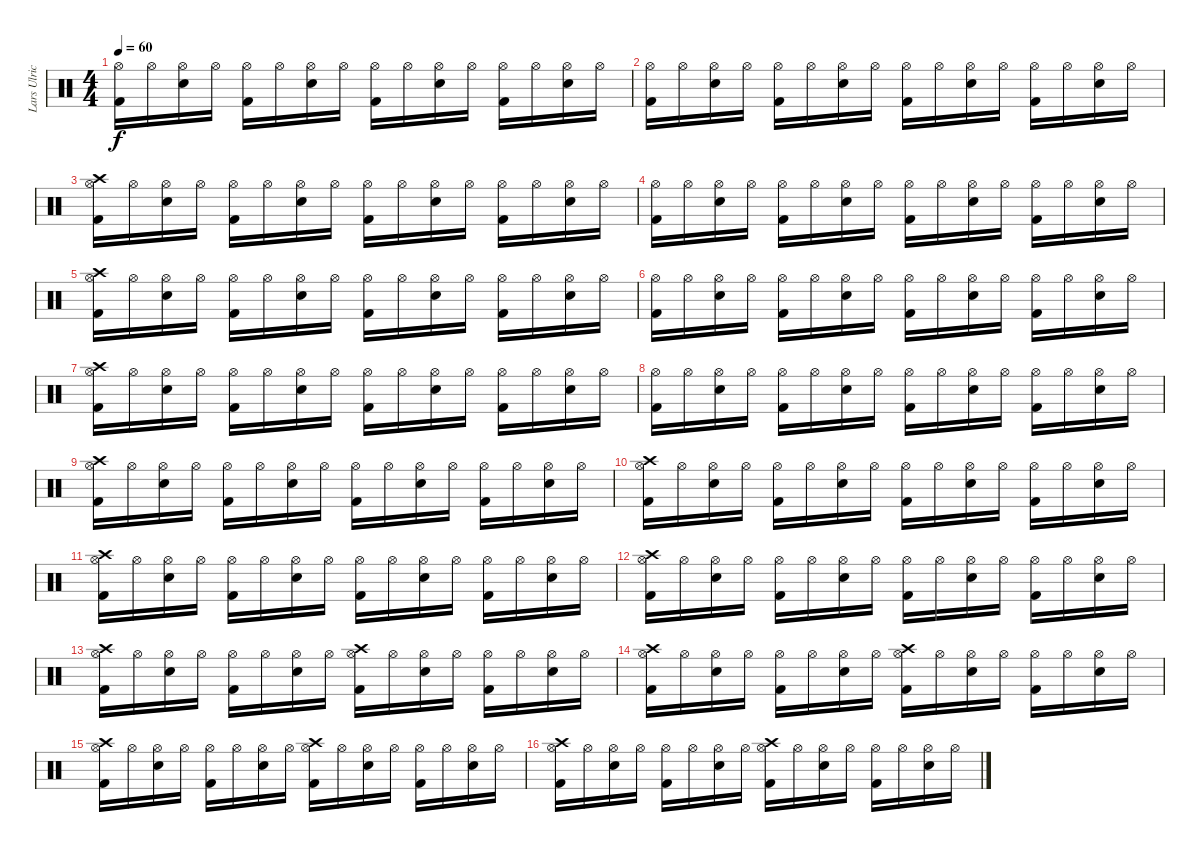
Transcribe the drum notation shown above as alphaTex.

\track ("Lars Ulrich" "Lars Ulric") {instrument percussion}
\staff {score}
\articulation defaults
\ts (4 4)
\tempo 60
\clef neutral
\ks c
("Kick (hit) 2" "Hi-Hat (open)").16{dy f} "Hi-Hat (open)".16 ("Snare (hit) 2" "Hi-Hat (open)").16 "Hi-Hat (open)".16 ("Kick (hit) 2" "Hi-Hat (open)").16 "Hi-Hat (open)".16 ("Snare (hit) 2" "Hi-Hat (open)").16 "Hi-Hat (open)".16 ("Kick (hit) 2" "Hi-Hat (open)").16 "Hi-Hat (open)".16 ("Snare (hit) 2" "Hi-Hat (open)").16 "Hi-Hat (open)".16 ("Kick (hit) 2" "Hi-Hat (open)").16 "Hi-Hat (open)".16 ("Snare (hit) 2" "Hi-Hat (open)").16 "Hi-Hat (open)".16 |
("Kick (hit) 2" "Hi-Hat (open)").16 "Hi-Hat (open)".16 ("Snare (hit) 2" "Hi-Hat (open)").16 "Hi-Hat (open)".16 ("Kick (hit) 2" "Hi-Hat (open)").16 "Hi-Hat (open)".16 ("Snare (hit) 2" "Hi-Hat (open)").16 "Hi-Hat (open)".16 ("Kick (hit) 2" "Hi-Hat (open)").16 "Hi-Hat (open)".16 ("Snare (hit) 2" "Hi-Hat (open)").16 "Hi-Hat (open)".16 ("Kick (hit) 2" "Hi-Hat (open)").16 "Hi-Hat (open)".16 ("Snare (hit) 2" "Hi-Hat (open)").16 "Hi-Hat (open)".16 |
("Kick (hit) 2" "Hi-Hat (open)" "Crash high (hit)").16 "Hi-Hat (open)".16 ("Snare (hit) 2" "Hi-Hat (open)").16 "Hi-Hat (open)".16 ("Kick (hit) 2" "Hi-Hat (open)").16 "Hi-Hat (open)".16 ("Snare (hit) 2" "Hi-Hat (open)").16 "Hi-Hat (open)".16 ("Kick (hit) 2" "Hi-Hat (open)").16 "Hi-Hat (open)".16 ("Snare (hit) 2" "Hi-Hat (open)").16 "Hi-Hat (open)".16 ("Kick (hit) 2" "Hi-Hat (open)").16 "Hi-Hat (open)".16 ("Snare (hit) 2" "Hi-Hat (open)").16 "Hi-Hat (open)".16 |
("Kick (hit) 2" "Hi-Hat (open)").16 "Hi-Hat (open)".16 ("Snare (hit) 2" "Hi-Hat (open)").16 "Hi-Hat (open)".16 ("Kick (hit) 2" "Hi-Hat (open)").16 "Hi-Hat (open)".16 ("Snare (hit) 2" "Hi-Hat (open)").16 "Hi-Hat (open)".16 ("Kick (hit) 2" "Hi-Hat (open)").16 "Hi-Hat (open)".16 ("Snare (hit) 2" "Hi-Hat (open)").16 "Hi-Hat (open)".16 ("Kick (hit) 2" "Hi-Hat (open)").16 "Hi-Hat (open)".16 ("Snare (hit) 2" "Hi-Hat (open)").16 "Hi-Hat (open)".16 |
("Kick (hit) 2" "Hi-Hat (open)" "Crash high (hit)").16 "Hi-Hat (open)".16 ("Snare (hit) 2" "Hi-Hat (open)").16 "Hi-Hat (open)".16 ("Kick (hit) 2" "Hi-Hat (open)").16 "Hi-Hat (open)".16 ("Snare (hit) 2" "Hi-Hat (open)").16 "Hi-Hat (open)".16 ("Kick (hit) 2" "Hi-Hat (open)").16 "Hi-Hat (open)".16 ("Snare (hit) 2" "Hi-Hat (open)").16 "Hi-Hat (open)".16 ("Kick (hit) 2" "Hi-Hat (open)").16 "Hi-Hat (open)".16 ("Snare (hit) 2" "Hi-Hat (open)").16 "Hi-Hat (open)".16 |
("Kick (hit) 2" "Hi-Hat (open)").16 "Hi-Hat (open)".16 ("Snare (hit) 2" "Hi-Hat (open)").16 "Hi-Hat (open)".16 ("Kick (hit) 2" "Hi-Hat (open)").16 "Hi-Hat (open)".16 ("Snare (hit) 2" "Hi-Hat (open)").16 "Hi-Hat (open)".16 ("Kick (hit) 2" "Hi-Hat (open)").16 "Hi-Hat (open)".16 ("Snare (hit) 2" "Hi-Hat (open)").16 "Hi-Hat (open)".16 ("Kick (hit) 2" "Hi-Hat (open)").16 "Hi-Hat (open)".16 ("Snare (hit) 2" "Hi-Hat (open)").16 "Hi-Hat (open)".16 |
("Kick (hit) 2" "Hi-Hat (open)" "Crash high (hit)").16 "Hi-Hat (open)".16 ("Snare (hit) 2" "Hi-Hat (open)").16 "Hi-Hat (open)".16 ("Kick (hit) 2" "Hi-Hat (open)").16 "Hi-Hat (open)".16 ("Snare (hit) 2" "Hi-Hat (open)").16 "Hi-Hat (open)".16 ("Kick (hit) 2" "Hi-Hat (open)").16 "Hi-Hat (open)".16 ("Snare (hit) 2" "Hi-Hat (open)").16 "Hi-Hat (open)".16 ("Kick (hit) 2" "Hi-Hat (open)").16 "Hi-Hat (open)".16 ("Snare (hit) 2" "Hi-Hat (open)").16 "Hi-Hat (open)".16 |
("Kick (hit) 2" "Hi-Hat (open)").16 "Hi-Hat (open)".16 ("Snare (hit) 2" "Hi-Hat (open)").16 "Hi-Hat (open)".16 ("Kick (hit) 2" "Hi-Hat (open)").16 "Hi-Hat (open)".16 ("Snare (hit) 2" "Hi-Hat (open)").16 "Hi-Hat (open)".16 ("Kick (hit) 2" "Hi-Hat (open)").16 "Hi-Hat (open)".16 ("Snare (hit) 2" "Hi-Hat (open)").16 "Hi-Hat (open)".16 ("Kick (hit) 2" "Hi-Hat (open)").16 "Hi-Hat (open)".16 ("Snare (hit) 2" "Hi-Hat (open)").16 "Hi-Hat (open)".16 |
("Kick (hit) 2" "Hi-Hat (open)" "Crash high (hit)").16 "Hi-Hat (open)".16 ("Snare (hit) 2" "Hi-Hat (open)").16 "Hi-Hat (open)".16 ("Kick (hit) 2" "Hi-Hat (open)").16 "Hi-Hat (open)".16 ("Snare (hit) 2" "Hi-Hat (open)").16 "Hi-Hat (open)".16 ("Kick (hit) 2" "Hi-Hat (open)").16 "Hi-Hat (open)".16 ("Snare (hit) 2" "Hi-Hat (open)").16 "Hi-Hat (open)".16 ("Kick (hit) 2" "Hi-Hat (open)").16 "Hi-Hat (open)".16 ("Snare (hit) 2" "Hi-Hat (open)").16 "Hi-Hat (open)".16 |
("Kick (hit) 2" "Hi-Hat (open)" "Crash high (hit)").16 "Hi-Hat (open)".16 ("Snare (hit) 2" "Hi-Hat (open)").16 "Hi-Hat (open)".16 ("Kick (hit) 2" "Hi-Hat (open)").16 "Hi-Hat (open)".16 ("Snare (hit) 2" "Hi-Hat (open)").16 "Hi-Hat (open)".16 ("Kick (hit) 2" "Hi-Hat (open)").16 "Hi-Hat (open)".16 ("Snare (hit) 2" "Hi-Hat (open)").16 "Hi-Hat (open)".16 ("Kick (hit) 2" "Hi-Hat (open)").16 "Hi-Hat (open)".16 ("Snare (hit) 2" "Hi-Hat (open)").16 "Hi-Hat (open)".16 |
("Kick (hit) 2" "Hi-Hat (open)" "Crash high (hit)").16 "Hi-Hat (open)".16 ("Snare (hit) 2" "Hi-Hat (open)").16 "Hi-Hat (open)".16 ("Kick (hit) 2" "Hi-Hat (open)").16 "Hi-Hat (open)".16 ("Snare (hit) 2" "Hi-Hat (open)").16 "Hi-Hat (open)".16 ("Kick (hit) 2" "Hi-Hat (open)").16 "Hi-Hat (open)".16 ("Snare (hit) 2" "Hi-Hat (open)").16 "Hi-Hat (open)".16 ("Kick (hit) 2" "Hi-Hat (open)").16 "Hi-Hat (open)".16 ("Snare (hit) 2" "Hi-Hat (open)").16 "Hi-Hat (open)".16 |
("Kick (hit) 2" "Hi-Hat (open)" "Crash high (hit)").16 "Hi-Hat (open)".16 ("Snare (hit) 2" "Hi-Hat (open)").16 "Hi-Hat (open)".16 ("Kick (hit) 2" "Hi-Hat (open)").16 "Hi-Hat (open)".16 ("Snare (hit) 2" "Hi-Hat (open)").16 "Hi-Hat (open)".16 ("Kick (hit) 2" "Hi-Hat (open)").16 "Hi-Hat (open)".16 ("Snare (hit) 2" "Hi-Hat (open)").16 "Hi-Hat (open)".16 ("Kick (hit) 2" "Hi-Hat (open)").16 "Hi-Hat (open)".16 ("Snare (hit) 2" "Hi-Hat (open)").16 "Hi-Hat (open)".16 |
("Kick (hit) 2" "Hi-Hat (open)" "Crash high (hit)").16 "Hi-Hat (open)".16 ("Snare (hit) 2" "Hi-Hat (open)").16 "Hi-Hat (open)".16 ("Kick (hit) 2" "Hi-Hat (open)").16 "Hi-Hat (open)".16 ("Snare (hit) 2" "Hi-Hat (open)").16 "Hi-Hat (open)".16 ("Kick (hit) 2" "Hi-Hat (open)" "Crash high (hit)").16 "Hi-Hat (open)".16 ("Snare (hit) 2" "Hi-Hat (open)").16 "Hi-Hat (open)".16 ("Kick (hit) 2" "Hi-Hat (open)").16 "Hi-Hat (open)".16 ("Snare (hit) 2" "Hi-Hat (open)").16 "Hi-Hat (open)".16 |
("Kick (hit) 2" "Hi-Hat (open)" "Crash high (hit)").16 "Hi-Hat (open)".16 ("Snare (hit) 2" "Hi-Hat (open)").16 "Hi-Hat (open)".16 ("Kick (hit) 2" "Hi-Hat (open)").16 "Hi-Hat (open)".16 ("Snare (hit) 2" "Hi-Hat (open)").16 "Hi-Hat (open)".16 ("Kick (hit) 2" "Hi-Hat (open)" "Crash high (hit)").16 "Hi-Hat (open)".16 ("Snare (hit) 2" "Hi-Hat (open)").16 "Hi-Hat (open)".16 ("Kick (hit) 2" "Hi-Hat (open)").16 "Hi-Hat (open)".16 ("Snare (hit) 2" "Hi-Hat (open)").16 "Hi-Hat (open)".16 |
("Kick (hit) 2" "Hi-Hat (open)" "Crash high (hit)").16 "Hi-Hat (open)".16 ("Snare (hit) 2" "Hi-Hat (open)").16 "Hi-Hat (open)".16 ("Kick (hit) 2" "Hi-Hat (open)").16 "Hi-Hat (open)".16 ("Snare (hit) 2" "Hi-Hat (open)").16 "Hi-Hat (open)".16 ("Kick (hit) 2" "Hi-Hat (open)" "Crash high (hit)").16 "Hi-Hat (open)".16 ("Snare (hit) 2" "Hi-Hat (open)").16 "Hi-Hat (open)".16 ("Kick (hit) 2" "Hi-Hat (open)").16 "Hi-Hat (open)".16 ("Snare (hit) 2" "Hi-Hat (open)").16 "Hi-Hat (open)".16 |
("Kick (hit) 2" "Hi-Hat (open)" "Crash high (hit)").16 "Hi-Hat (open)".16 ("Snare (hit) 2" "Hi-Hat (open)").16 "Hi-Hat (open)".16 ("Kick (hit) 2" "Hi-Hat (open)").16 "Hi-Hat (open)".16 ("Snare (hit) 2" "Hi-Hat (open)").16 "Hi-Hat (open)".16 ("Kick (hit) 2" "Hi-Hat (open)" "Crash high (hit)").16 "Hi-Hat (open)".16 ("Snare (hit) 2" "Hi-Hat (open)").16 "Hi-Hat (open)".16 ("Kick (hit) 2" "Hi-Hat (open)").16 "Hi-Hat (open)".16 ("Snare (hit) 2" "Hi-Hat (open)").16 "Hi-Hat (open)".16
